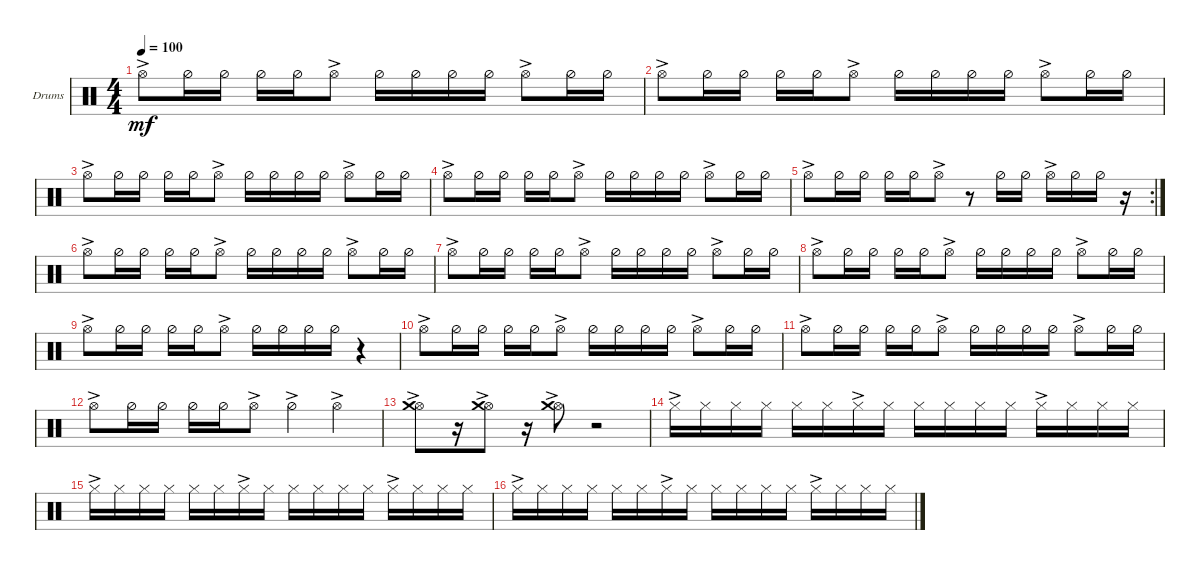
\defaultSystemsLayout 4
\bracketExtendMode groupsimilarinstruments
\firstSystemTrackNameOrientation horizontal
\otherSystemsTrackNameOrientation horizontal
\track ("Drumkit 2" "Drums") {instrument percussion}
\staff {score}
\articulation defaults
\ts (4 4)
\tempo 100
\clef neutral
\ks c "Hi-Hat (open)"{ac}.8{dy mf} "Hi-Hat (half)".16 "Hi-Hat (half)".16 "Hi-Hat (half)".16 "Hi-Hat (half)".16 "Hi-Hat (open)"{ac}.8 "Hi-Hat (half)".16 "Hi-Hat (half)".16 "Hi-Hat (half)".16 "Hi-Hat (half)".16 "Hi-Hat (open)"{ac}.8 "Hi-Hat (half)".16 "Hi-Hat (half)".16
|
"Hi-Hat (open)"{ac}.8 "Hi-Hat (half)".16 "Hi-Hat (half)".16 "Hi-Hat (half)".16 "Hi-Hat (half)".16 "Hi-Hat (open)"{ac}.8 "Hi-Hat (half)".16 "Hi-Hat (half)".16 "Hi-Hat (half)".16 "Hi-Hat (half)".16 "Hi-Hat (open)"{ac}.8 "Hi-Hat (half)".16 "Hi-Hat (half)".16 |
"Hi-Hat (open)"{ac}.8 "Hi-Hat (half)".16 "Hi-Hat (half)".16 "Hi-Hat (half)".16 "Hi-Hat (half)".16 "Hi-Hat (open)"{ac}.8 "Hi-Hat (half)".16 "Hi-Hat (half)".16 "Hi-Hat (half)".16 "Hi-Hat (half)".16 "Hi-Hat (open)"{ac}.8 "Hi-Hat (half)".16 "Hi-Hat (half)".16 |
"Hi-Hat (open)"{ac}.8 "Hi-Hat (half)".16 "Hi-Hat (half)".16 "Hi-Hat (half)".16 "Hi-Hat (half)".16 "Hi-Hat (open)"{ac}.8 "Hi-Hat (half)".16 "Hi-Hat (half)".16 "Hi-Hat (half)".16 "Hi-Hat (half)".16 "Hi-Hat (open)"{ac}.8 "Hi-Hat (half)".16 "Hi-Hat (half)".16 |
\rc 2 "Hi-Hat (open)"{ac}.8 "Hi-Hat (half)".16 "Hi-Hat (half)".16 "Hi-Hat (half)".16 "Hi-Hat (half)".16 "Hi-Hat (open)"{ac}.8
r.8 "Hi-Hat (half)".16 "Hi-Hat (half)".16 "Hi-Hat (open)"{ac}.16 "Hi-Hat (half)".16 "Hi-Hat (half)".16 r.16 |
"Hi-Hat (open)"{ac}.8 "Hi-Hat (half)".16 "Hi-Hat (half)".16 "Hi-Hat (half)".16 "Hi-Hat (half)".16 "Hi-Hat (open)"{ac}.8 "Hi-Hat (half)".16 "Hi-Hat (half)".16 "Hi-Hat (half)".16 "Hi-Hat (half)".16 "Hi-Hat (open)"{ac}.8 "Hi-Hat (half)".16 "Hi-Hat (half)".16 |
"Hi-Hat (open)"{ac}.8 "Hi-Hat (half)".16 "Hi-Hat (half)".16 "Hi-Hat (half)".16 "Hi-Hat (half)".16 "Hi-Hat (open)"{ac}.8 "Hi-Hat (half)".16 "Hi-Hat (half)".16 "Hi-Hat (half)".16 "Hi-Hat (half)".16 "Hi-Hat (open)"{ac}.8 "Hi-Hat (half)".16 "Hi-Hat (half)".16 |
"Hi-Hat (open)"{ac}.8 "Hi-Hat (half)".16 "Hi-Hat (half)".16 "Hi-Hat (half)".16 "Hi-Hat (half)".16 "Hi-Hat (open)"{ac}.8 "Hi-Hat (half)".16 "Hi-Hat (half)".16 "Hi-Hat (half)".16 "Hi-Hat (half)".16 "Hi-Hat (open)"{ac}.8 "Hi-Hat (half)".16 "Hi-Hat (half)".16 |
"Hi-Hat (open)"{ac}.8 "Hi-Hat (half)".16 "Hi-Hat (half)".16 "Hi-Hat (half)".16 "Hi-Hat (half)".16 "Hi-Hat (open)"{ac}.8 "Hi-Hat (half)".16 "Hi-Hat (half)".16 "Hi-Hat (half)".16 "Hi-Hat (half)".16 r.4 |
"Hi-Hat (open)"{ac}.8 "Hi-Hat (half)".16 "Hi-Hat (half)".16 "Hi-Hat (half)".16 "Hi-Hat (half)".16 "Hi-Hat (open)"{ac}.8 "Hi-Hat (half)".16 "Hi-Hat (half)".16 "Hi-Hat (half)".16 "Hi-Hat (half)".16 "Hi-Hat (open)"{ac}.8 "Hi-Hat (half)".16 "Hi-Hat (half)".16 |
"Hi-Hat (open)"{ac}.8 "Hi-Hat (half)".16 "Hi-Hat (half)".16 "Hi-Hat (half)".16 "Hi-Hat (half)".16 "Hi-Hat (open)"{ac}.8 "Hi-Hat (half)".16 "Hi-Hat (half)".16 "Hi-Hat (half)".16 "Hi-Hat (half)".16 "Hi-Hat (open)"{ac}.8 "Hi-Hat (half)".16 "Hi-Hat (half)".16 |
"Hi-Hat (open)"{ac}.8 "Hi-Hat (half)".16 "Hi-Hat (half)".16 "Hi-Hat (half)".16 "Hi-Hat (half)".16 "Hi-Hat (open)"{ac}.8 "Hi-Hat (half)"{ac}.4 "Hi-Hat (open)"{ac}.4 |
("Hi-Hat (open)"{ac} "Crash medium (hit)").8 r.16 ("Hi-Hat (open)"{ac} "Crash medium (hit)").8 r.16 ("Hi-Hat (open)"{ac} "Crash medium (hit)").8 r.2 |
"Hi-Hat (closed)"{ac}.16 "Hi-Hat (closed)".16 "Hi-Hat (closed)".16 "Hi-Hat (closed)".16 "Hi-Hat (closed)".16 "Hi-Hat (closed)".16 "Hi-Hat (closed)"{ac}.16 "Hi-Hat (closed)".16 "Hi-Hat (closed)".16 "Hi-Hat (closed)".16 "Hi-Hat (closed)".16 "Hi-Hat (closed)".16 "Hi-Hat (closed)"{ac}.16 "Hi-Hat (closed)".16 "Hi-Hat (closed)".16 "Hi-Hat (closed)".16 |
"Hi-Hat (closed)"{ac}.16 "Hi-Hat (closed)".16 "Hi-Hat (closed)".16 "Hi-Hat (closed)".16 "Hi-Hat (closed)".16 "Hi-Hat (closed)".16 "Hi-Hat (closed)"{ac}.16 "Hi-Hat (closed)".16 "Hi-Hat (closed)".16 "Hi-Hat (closed)".16 "Hi-Hat (closed)".16 "Hi-Hat (closed)".16 "Hi-Hat (closed)"{ac}.16 "Hi-Hat (closed)".16 "Hi-Hat (closed)".16 "Hi-Hat (closed)".16 |
"Hi-Hat (closed)"{ac}.16 "Hi-Hat (closed)".16 "Hi-Hat (closed)".16 "Hi-Hat (closed)".16 "Hi-Hat (closed)".16 "Hi-Hat (closed)".16 "Hi-Hat (closed)"{ac}.16 "Hi-Hat (closed)".16 "Hi-Hat (closed)".16 "Hi-Hat (closed)".16 "Hi-Hat (closed)".16 "Hi-Hat (closed)".16 "Hi-Hat (closed)"{ac}.16 "Hi-Hat (closed)".16 "Hi-Hat (closed)".16 "Hi-Hat (closed)".16
